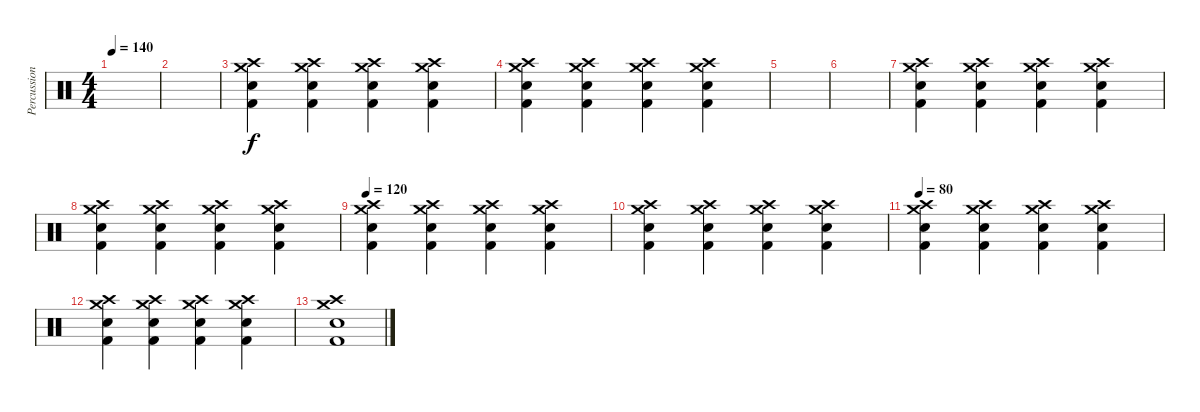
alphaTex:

\track ("Percussion" "Percussion") {instrument percussion}
\staff {score}
\articulation defaults
\ts (4 4)
\tempo 140
\clef neutral
\ks c
|
|
("Crash medium (hit)" "Crash high (hit)" "Electric Snare (hit)" "Kick (hit) 2").4 ("Crash medium (hit)" "Crash high (hit)" "Electric Snare (hit)" "Kick (hit) 2").4 ("Crash medium (hit)" "Crash high (hit)" "Electric Snare (hit)" "Kick (hit) 2").4 ("Crash medium (hit)" "Crash high (hit)" "Electric Snare (hit)" "Kick (hit) 2").4 |
("Crash medium (hit)" "Crash high (hit)" "Electric Snare (hit)" "Kick (hit) 2").4 ("Crash medium (hit)" "Crash high (hit)" "Electric Snare (hit)" "Kick (hit) 2").4 ("Crash medium (hit)" "Crash high (hit)" "Electric Snare (hit)" "Kick (hit) 2").4 ("Crash medium (hit)" "Crash high (hit)" "Electric Snare (hit)" "Kick (hit) 2").4 |
|
|
("Crash medium (hit)" "Crash high (hit)" "Electric Snare (hit)" "Kick (hit) 2").4 ("Crash medium (hit)" "Crash high (hit)" "Electric Snare (hit)" "Kick (hit) 2").4 ("Crash medium (hit)" "Crash high (hit)" "Electric Snare (hit)" "Kick (hit) 2").4 ("Crash medium (hit)" "Crash high (hit)" "Electric Snare (hit)" "Kick (hit) 2").4 |
("Crash medium (hit)" "Crash high (hit)" "Electric Snare (hit)" "Kick (hit) 2").4 ("Crash medium (hit)" "Crash high (hit)" "Electric Snare (hit)" "Kick (hit) 2").4 ("Crash medium (hit)" "Crash high (hit)" "Electric Snare (hit)" "Kick (hit) 2").4 ("Crash medium (hit)" "Crash high (hit)" "Electric Snare (hit)" "Kick (hit) 2").4 |
\tempo 120
("Crash medium (hit)" "Crash high (hit)" "Electric Snare (hit)" "Kick (hit) 2").4 ("Crash medium (hit)" "Crash high (hit)" "Electric Snare (hit)" "Kick (hit) 2").4 ("Crash medium (hit)" "Crash high (hit)" "Electric Snare (hit)" "Kick (hit) 2").4 ("Crash medium (hit)" "Crash high (hit)" "Electric Snare (hit)" "Kick (hit) 2").4 |
("Crash medium (hit)" "Crash high (hit)" "Electric Snare (hit)" "Kick (hit) 2").4 ("Crash medium (hit)" "Crash high (hit)" "Electric Snare (hit)" "Kick (hit) 2").4 ("Crash medium (hit)" "Crash high (hit)" "Electric Snare (hit)" "Kick (hit) 2").4 ("Crash medium (hit)" "Crash high (hit)" "Electric Snare (hit)" "Kick (hit) 2").4 |
\tempo 80
("Crash medium (hit)" "Crash high (hit)" "Electric Snare (hit)" "Kick (hit) 2").4 ("Crash medium (hit)" "Crash high (hit)" "Electric Snare (hit)" "Kick (hit) 2").4 ("Crash medium (hit)" "Crash high (hit)" "Electric Snare (hit)" "Kick (hit) 2").4 ("Crash medium (hit)" "Crash high (hit)" "Electric Snare (hit)" "Kick (hit) 2").4 |
("Crash medium (hit)" "Crash high (hit)" "Electric Snare (hit)" "Kick (hit) 2").4 ("Crash medium (hit)" "Crash high (hit)" "Electric Snare (hit)" "Kick (hit) 2").4 ("Crash medium (hit)" "Crash high (hit)" "Electric Snare (hit)" "Kick (hit) 2").4 ("Crash medium (hit)" "Crash high (hit)" "Electric Snare (hit)" "Kick (hit) 2").4 |
("Crash medium (hit)" "Crash high (hit)" "Electric Snare (hit)" "Kick (hit) 2").1
